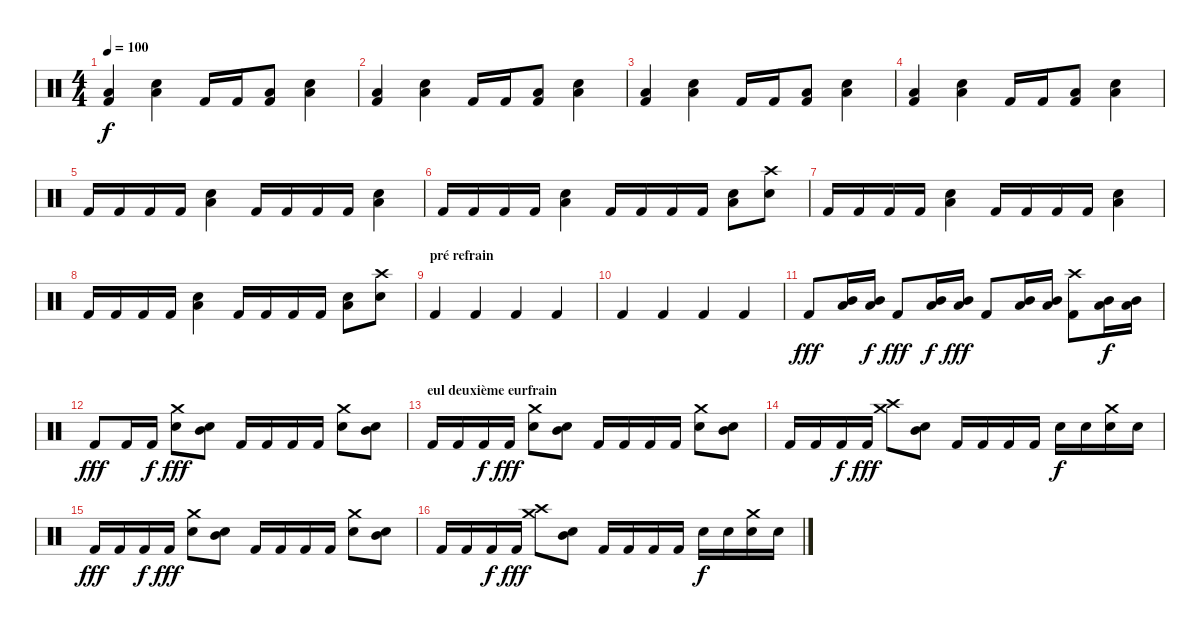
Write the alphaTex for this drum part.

\track "" {instrument percussion}
\staff {score}
\articulation defaults
\ts (4 4)
\tempo 100
\clef neutral
\ks c
("Low Tom (hit)" "Kick (hit) 2").4{dy f} ("Low Tom (hit)" "Electric Snare (hit)").4 "Kick (hit) 2".16 "Kick (hit) 2".16 ("Low Tom (hit)" "Kick (hit) 2").8 ("Low Tom (hit)" "Electric Snare (hit)").4 |
("Low Tom (hit)" "Kick (hit) 2").4 ("Low Tom (hit)" "Electric Snare (hit)").4 "Kick (hit) 2".16 "Kick (hit) 2".16 ("Low Tom (hit)" "Kick (hit) 2").8 ("Low Tom (hit)" "Electric Snare (hit)").4 |
("Low Tom (hit)" "Kick (hit) 2").4 ("Low Tom (hit)" "Electric Snare (hit)").4 "Kick (hit) 2".16 "Kick (hit) 2".16 ("Low Tom (hit)" "Kick (hit) 2").8 ("Low Tom (hit)" "Electric Snare (hit)").4 |
("Low Tom (hit)" "Kick (hit) 2").4 ("Low Tom (hit)" "Electric Snare (hit)").4 "Kick (hit) 2".16 "Kick (hit) 2".16 ("Low Tom (hit)" "Kick (hit) 2").8 ("Low Tom (hit)" "Electric Snare (hit)").4 |
"Kick (hit) 2".16 "Kick (hit) 2".16 "Kick (hit) 2".16 "Kick (hit) 2".16 ("Low Tom (hit)" "Electric Snare (hit)").4 "Kick (hit) 2".16 "Kick (hit) 2".16 "Kick (hit) 2".16 "Kick (hit) 2".16 ("Low Tom (hit)" "Electric Snare (hit)").4 |
"Kick (hit) 2".16 "Kick (hit) 2".16 "Kick (hit) 2".16 "Kick (hit) 2".16 ("Low Tom (hit)" "Electric Snare (hit)").4 "Kick (hit) 2".16 "Kick (hit) 2".16 "Kick (hit) 2".16 "Kick (hit) 2".16 ("Low Tom (hit)" "Electric Snare (hit)").8 ("Crash high (hit)" "Electric Snare (hit)").8 |
"Kick (hit) 2".16 "Kick (hit) 2".16 "Kick (hit) 2".16 "Kick (hit) 2".16 ("Low Tom (hit)" "Electric Snare (hit)").4 "Kick (hit) 2".16 "Kick (hit) 2".16 "Kick (hit) 2".16 "Kick (hit) 2".16 ("Low Tom (hit)" "Electric Snare (hit)").4 |
"Kick (hit) 2".16 "Kick (hit) 2".16 "Kick (hit) 2".16 "Kick (hit) 2".16 ("Low Tom (hit)" "Electric Snare (hit)").4 "Kick (hit) 2".16 "Kick (hit) 2".16 "Kick (hit) 2".16 "Kick (hit) 2".16 ("Low Tom (hit)" "Electric Snare (hit)").8 ("Crash high (hit)" "Electric Snare (hit)").8 |
\section ("" "pré refrain")
"Kick (hit) 2".4 "Kick (hit) 2".4 "Kick (hit) 2".4 "Kick (hit) 2".4 |
"Kick (hit) 2".4 "Kick (hit) 2".4 "Kick (hit) 2".4 "Kick (hit) 2".4 |
"Kick (hit) 2".8{dy fff} ("Low Tom (hit)" "Mid Tom (hit)").16 ("Low Tom (hit)" "Mid Tom (hit)").16{dy f} "Kick (hit) 2".8{dy fff} ("Low Tom (hit)" "Mid Tom (hit)").16{dy f} ("Mid Tom (hit)" "Low Tom (hit)").16{dy fff} "Kick (hit) 2".8 ("Low Tom (hit)" "Mid Tom (hit)").16 ("Low Tom (hit)" "Mid Tom (hit)").16 ("Kick (hit) 2" "Crash high (hit)").8 ("Low Tom (hit)" "Mid Tom (hit)").16{dy f} ("Low Tom (hit)" "Mid Tom (hit)").16 |
"Kick (hit) 2".8{dy fff} "Kick (hit) 2".16 "Kick (hit) 2".16{dy f} ("Electric Snare (hit)" "Crash medium (hit)").8{dy fff} ("Snare (hit) 2" "Mid Tom (hit)").8 "Kick (hit) 2".16 "Kick (hit) 2".16 "Kick (hit) 2".16 "Kick (hit) 2".16 ("Electric Snare (hit)" "Crash medium (hit)").8 ("Snare (hit) 2" "Mid Tom (hit)").8 |
\section ("" "eul deuxième eurfrain")
"Kick (hit) 2".16 "Kick (hit) 2".16 "Kick (hit) 2".16{dy f} "Kick (hit) 2".16{dy fff} ("Electric Snare (hit)" "Crash medium (hit)").8 ("Snare (hit) 2" "Mid Tom (hit)").8 "Kick (hit) 2".16 "Kick (hit) 2".16 "Kick (hit) 2".16 "Kick (hit) 2".16 ("Electric Snare (hit)" "Crash medium (hit)").8 ("Snare (hit) 2" "Mid Tom (hit)").8 |
"Kick (hit) 2".16 "Kick (hit) 2".16 "Kick (hit) 2".16{dy f} "Kick (hit) 2".16{dy fff} ("Crash high (hit)" "Crash medium (hit)").8 ("Snare (hit) 2" "Mid Tom (hit)").8 "Kick (hit) 2".16 "Kick (hit) 2".16 "Kick (hit) 2".16 "Kick (hit) 2".16 "Electric Snare (hit)".16{dy f} "Electric Snare (hit)".16 ("Electric Snare (hit)" "Crash medium (hit)").16 "Electric Snare (hit)".16 |
"Kick (hit) 2".16{dy fff} "Kick (hit) 2".16 "Kick (hit) 2".16{dy f} "Kick (hit) 2".16{dy fff} ("Electric Snare (hit)" "Crash medium (hit)").8 ("Snare (hit) 2" "Mid Tom (hit)").8 "Kick (hit) 2".16 "Kick (hit) 2".16 "Kick (hit) 2".16 "Kick (hit) 2".16 ("Electric Snare (hit)" "Crash medium (hit)").8 ("Snare (hit) 2" "Mid Tom (hit)").8 |
"Kick (hit) 2".16 "Kick (hit) 2".16 "Kick (hit) 2".16{dy f} "Kick (hit) 2".16{dy fff} ("Crash high (hit)" "Crash medium (hit)").8 ("Snare (hit) 2" "Mid Tom (hit)").8 "Kick (hit) 2".16 "Kick (hit) 2".16 "Kick (hit) 2".16 "Kick (hit) 2".16 "Electric Snare (hit)".16{dy f} "Electric Snare (hit)".16 ("Electric Snare (hit)" "Crash medium (hit)").16 "Electric Snare (hit)".16
